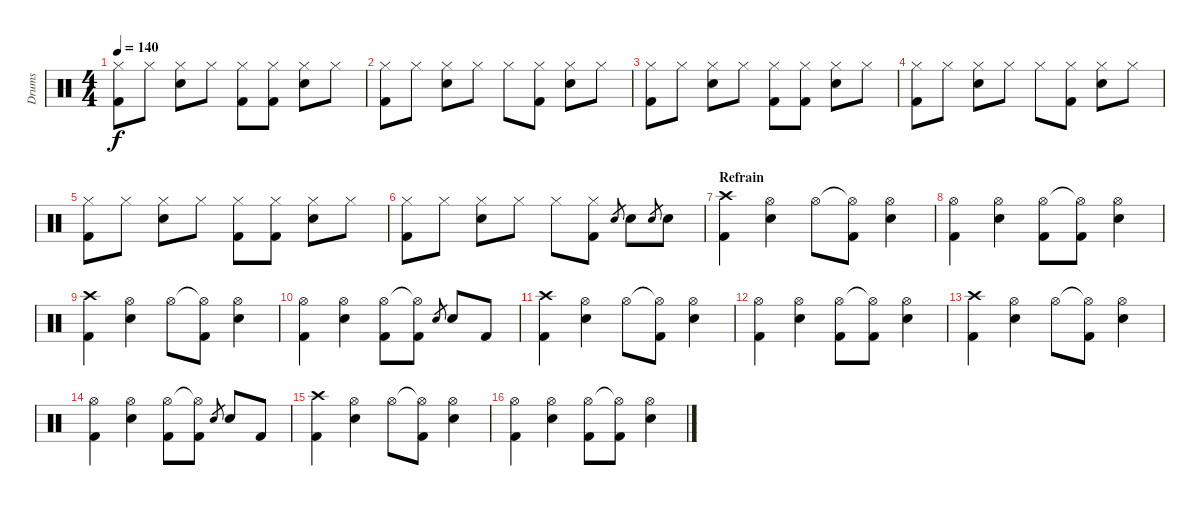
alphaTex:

\track ("Drums" "Drums") {instrument percussion}
\staff {score}
\articulation defaults
\ts (4 4)
\tempo 140
\clef neutral
\ks c
("Hi-Hat (closed)" "Kick (hit) 2").8{dy f} "Hi-Hat (closed)".8 ("Hi-Hat (closed)" "Electric Snare (hit)").8 "Hi-Hat (closed)".8 ("Hi-Hat (closed)" "Kick (hit) 2").8 ("Hi-Hat (closed)" "Kick (hit) 2").8 ("Hi-Hat (closed)" "Electric Snare (hit)").8 "Hi-Hat (closed)".8 |
("Hi-Hat (closed)" "Kick (hit) 2").8 "Hi-Hat (closed)".8 ("Hi-Hat (closed)" "Electric Snare (hit)").8 "Hi-Hat (closed)".8 "Hi-Hat (closed)".8 ("Hi-Hat (closed)" "Kick (hit) 2").8 ("Hi-Hat (closed)" "Electric Snare (hit)").8 "Hi-Hat (closed)".8 |
("Hi-Hat (closed)" "Kick (hit) 2").8 "Hi-Hat (closed)".8 ("Hi-Hat (closed)" "Electric Snare (hit)").8 "Hi-Hat (closed)".8 ("Hi-Hat (closed)" "Kick (hit) 2").8 ("Hi-Hat (closed)" "Kick (hit) 2").8 ("Hi-Hat (closed)" "Electric Snare (hit)").8 "Hi-Hat (closed)".8 |
("Hi-Hat (closed)" "Kick (hit) 2").8 "Hi-Hat (closed)".8 ("Hi-Hat (closed)" "Electric Snare (hit)").8 "Hi-Hat (closed)".8 "Hi-Hat (closed)".8 ("Hi-Hat (closed)" "Kick (hit) 2").8 ("Hi-Hat (closed)" "Electric Snare (hit)").8 "Hi-Hat (closed)".8 |
("Hi-Hat (closed)" "Kick (hit) 2").8 "Hi-Hat (closed)".8 ("Hi-Hat (closed)" "Electric Snare (hit)").8 "Hi-Hat (closed)".8 ("Hi-Hat (closed)" "Kick (hit) 2").8 ("Hi-Hat (closed)" "Kick (hit) 2").8 ("Hi-Hat (closed)" "Electric Snare (hit)").8 "Hi-Hat (closed)".8 |
("Hi-Hat (closed)" "Kick (hit) 2").8 "Hi-Hat (closed)".8 ("Hi-Hat (closed)" "Electric Snare (hit)").8 "Hi-Hat (closed)".8 "Hi-Hat (closed)".8 ("Hi-Hat (closed)" "Kick (hit) 2").8 "Electric Snare (hit)".8{gr} "Electric Snare (hit)".8 "Electric Snare (hit)".8{gr} "Electric Snare (hit)".8 |
\section ("" "Refrain")
("Crash high (hit)" "Kick (hit) 2").4 ("Hi-Hat (open)" "Electric Snare (hit)").4 "Hi-Hat (open)".8 ("Hi-Hat (open)"{t} "Kick (hit) 2").8 ("Hi-Hat (open)" "Electric Snare (hit)").4 |
("Hi-Hat (open)" "Kick (hit) 2").4 ("Hi-Hat (open)" "Electric Snare (hit)").4 ("Hi-Hat (open)" "Kick (hit) 2").8 ("Hi-Hat (open)"{t} "Kick (hit) 2").8 ("Hi-Hat (open)" "Electric Snare (hit)").4 |
("Crash high (hit)" "Kick (hit) 2").4 ("Hi-Hat (open)" "Electric Snare (hit)").4 "Hi-Hat (open)".8 ("Hi-Hat (open)"{t} "Kick (hit) 2").8 ("Hi-Hat (open)" "Electric Snare (hit)").4 |
("Hi-Hat (open)" "Kick (hit) 2").4 ("Hi-Hat (open)" "Electric Snare (hit)").4 ("Hi-Hat (open)" "Kick (hit) 2").8 ("Hi-Hat (open)"{t} "Kick (hit) 2").8 "Electric Snare (hit)".8{gr} "Electric Snare (hit)".8 "Kick (hit) 2".8 |
("Crash high (hit)" "Kick (hit) 2").4 ("Hi-Hat (open)" "Electric Snare (hit)").4 "Hi-Hat (open)".8 ("Hi-Hat (open)"{t} "Kick (hit) 2").8 ("Hi-Hat (open)" "Electric Snare (hit)").4 |
("Hi-Hat (open)" "Kick (hit) 2").4 ("Hi-Hat (open)" "Electric Snare (hit)").4 ("Hi-Hat (open)" "Kick (hit) 2").8 ("Hi-Hat (open)"{t} "Kick (hit) 2").8 ("Hi-Hat (open)" "Electric Snare (hit)").4 |
("Crash high (hit)" "Kick (hit) 2").4 ("Hi-Hat (open)" "Electric Snare (hit)").4 "Hi-Hat (open)".8 ("Hi-Hat (open)"{t} "Kick (hit) 2").8 ("Hi-Hat (open)" "Electric Snare (hit)").4 |
("Hi-Hat (open)" "Kick (hit) 2").4 ("Hi-Hat (open)" "Electric Snare (hit)").4 ("Hi-Hat (open)" "Kick (hit) 2").8 ("Hi-Hat (open)"{t} "Kick (hit) 2").8 "Electric Snare (hit)".8{gr} "Electric Snare (hit)".8 "Kick (hit) 2".8 |
("Crash high (hit)" "Kick (hit) 2").4 ("Hi-Hat (open)" "Electric Snare (hit)").4 "Hi-Hat (open)".8 ("Hi-Hat (open)"{t} "Kick (hit) 2").8 ("Hi-Hat (open)" "Electric Snare (hit)").4 |
("Hi-Hat (open)" "Kick (hit) 2").4 ("Hi-Hat (open)" "Electric Snare (hit)").4 ("Hi-Hat (open)" "Kick (hit) 2").8 ("Hi-Hat (open)"{t} "Kick (hit) 2").8 ("Hi-Hat (open)" "Electric Snare (hit)").4
